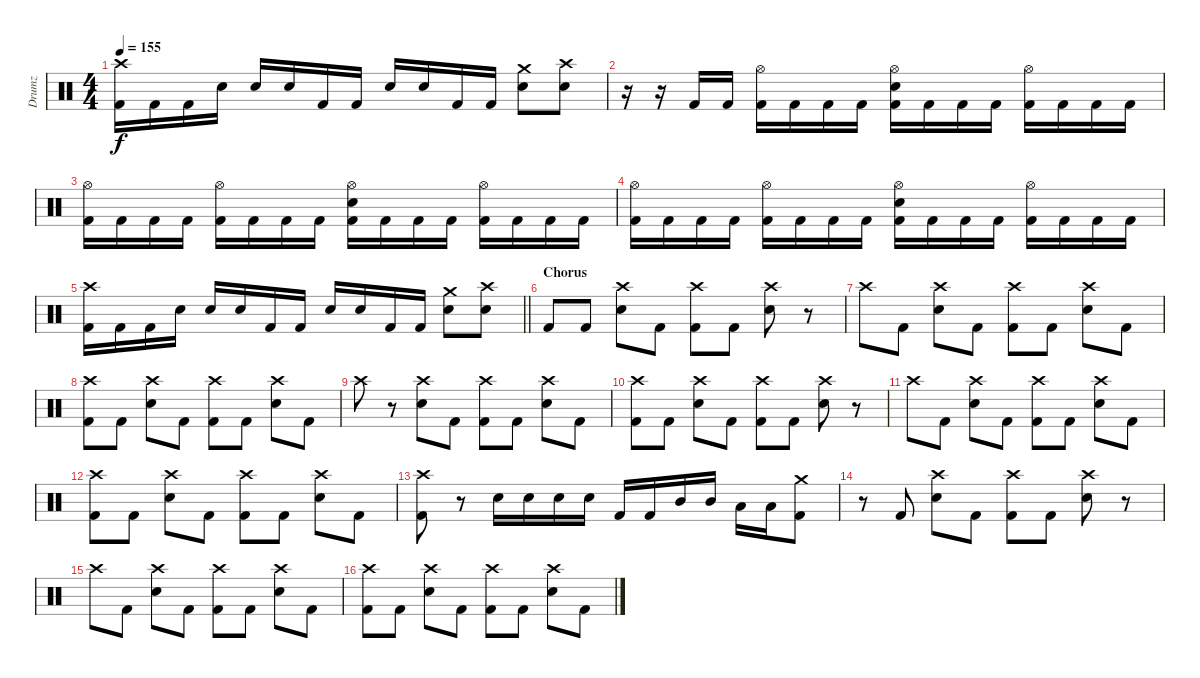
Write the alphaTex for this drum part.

\track ("Drumz" "Drumz") {instrument percussion}
\staff {score}
\articulation defaults
\ts (4 4)
\tempo 155
\clef neutral
\ks c
("Kick (hit) 2" "Crash high (hit)").16{dy f} "Kick (hit) 2".16 "Kick (hit) 2".16 "Electric Snare (hit)".16 "Electric Snare (hit)".16 "Electric Snare (hit)".16 "Kick (hit) 2".16 "Kick (hit) 2".16 "Electric Snare (hit)".16 "Electric Snare (hit)".16 "Kick (hit) 2".16 "Kick (hit) 2".16 ("Crash medium (hit)" "Electric Snare (hit)").8 ("Electric Snare (hit)" "Crash high (hit)").8 |
r.16 r.16 "Kick (hit) 2".16 "Kick (hit) 2".16 ("Kick (hit) 2" "Hi-Hat (open)").16 "Kick (hit) 2".16 "Kick (hit) 2".16 "Kick (hit) 2".16 ("Kick (hit) 2" "Hi-Hat (open)" "Electric Snare (hit)").16 "Kick (hit) 2".16 "Kick (hit) 2".16 "Kick (hit) 2".16 ("Kick (hit) 2" "Hi-Hat (open)").16 "Kick (hit) 2".16 "Kick (hit) 2".16 "Kick (hit) 2".16 |
("Kick (hit) 2" "Hi-Hat (open)").16 "Kick (hit) 2".16 "Kick (hit) 2".16 "Kick (hit) 2".16 ("Kick (hit) 2" "Hi-Hat (open)").16 "Kick (hit) 2".16 "Kick (hit) 2".16 "Kick (hit) 2".16 ("Kick (hit) 2" "Hi-Hat (open)" "Electric Snare (hit)").16 "Kick (hit) 2".16 "Kick (hit) 2".16 "Kick (hit) 2".16 ("Kick (hit) 2" "Hi-Hat (open)").16 "Kick (hit) 2".16 "Kick (hit) 2".16 "Kick (hit) 2".16 |
("Kick (hit) 2" "Hi-Hat (open)").16 "Kick (hit) 2".16 "Kick (hit) 2".16 "Kick (hit) 2".16 ("Kick (hit) 2" "Hi-Hat (open)").16 "Kick (hit) 2".16 "Kick (hit) 2".16 "Kick (hit) 2".16 ("Kick (hit) 2" "Hi-Hat (open)" "Electric Snare (hit)").16 "Kick (hit) 2".16 "Kick (hit) 2".16 "Kick (hit) 2".16 ("Kick (hit) 2" "Hi-Hat (open)").16 "Kick (hit) 2".16 "Kick (hit) 2".16 "Kick (hit) 2".16 |
\barLineRight lightlight
("Kick (hit) 2" "Crash high (hit)").16 "Kick (hit) 2".16 "Kick (hit) 2".16 "Electric Snare (hit)".16 "Electric Snare (hit)".16 "Electric Snare (hit)".16 "Kick (hit) 2".16 "Kick (hit) 2".16 "Electric Snare (hit)".16 "Electric Snare (hit)".16 "Kick (hit) 2".16 "Kick (hit) 2".16 ("Crash medium (hit)" "Electric Snare (hit)").8 ("Electric Snare (hit)" "Crash high (hit)").8 |
\section ("" "Chorus")
"Kick (hit) 2".8 "Kick (hit) 2".8 ("Electric Snare (hit)" "Crash high (hit)").8 "Kick (hit) 2".8 ("Kick (hit) 2" "Crash high (hit)").8 "Kick (hit) 2".8 ("Electric Snare (hit)" "Crash high (hit)").8 r.8 |
"Crash high (hit)".8 "Kick (hit) 2".8 ("Electric Snare (hit)" "Crash high (hit)").8 "Kick (hit) 2".8 ("Kick (hit) 2" "Crash high (hit)").8 "Kick (hit) 2".8 ("Electric Snare (hit)" "Crash high (hit)").8 "Kick (hit) 2".8 |
("Kick (hit) 2" "Crash high (hit)").8 "Kick (hit) 2".8 ("Electric Snare (hit)" "Crash high (hit)").8 "Kick (hit) 2".8 ("Kick (hit) 2" "Crash high (hit)").8 "Kick (hit) 2".8 ("Electric Snare (hit)" "Crash high (hit)").8 "Kick (hit) 2".8 |
"Crash high (hit)".8 r.8 ("Electric Snare (hit)" "Crash high (hit)").8 "Kick (hit) 2".8 ("Kick (hit) 2" "Crash high (hit)").8 "Kick (hit) 2".8 ("Electric Snare (hit)" "Crash high (hit)").8 "Kick (hit) 2".8 |
("Kick (hit) 2" "Crash high (hit)").8 "Kick (hit) 2".8 ("Electric Snare (hit)" "Crash high (hit)").8 "Kick (hit) 2".8 ("Kick (hit) 2" "Crash high (hit)").8 "Kick (hit) 2".8 ("Electric Snare (hit)" "Crash high (hit)").8 r.8 |
"Crash high (hit)".8 "Kick (hit) 2".8 ("Electric Snare (hit)" "Crash high (hit)").8 "Kick (hit) 2".8 ("Kick (hit) 2" "Crash high (hit)").8 "Kick (hit) 2".8 ("Electric Snare (hit)" "Crash high (hit)").8 "Kick (hit) 2".8 |
("Kick (hit) 2" "Crash high (hit)").8 "Kick (hit) 2".8 ("Electric Snare (hit)" "Crash high (hit)").8 "Kick (hit) 2".8 ("Kick (hit) 2" "Crash high (hit)").8 "Kick (hit) 2".8 ("Electric Snare (hit)" "Crash high (hit)").8 "Kick (hit) 2".8 |
("Crash high (hit)" "Kick (hit) 2").8 r.8 "Electric Snare (hit)".16 "Electric Snare (hit)".16 "Electric Snare (hit)".16 "Electric Snare (hit)".16 "Kick (hit) 2".16 "Kick (hit) 2".16 "Mid Tom (hit)".16 "Mid Tom (hit)".16 "Low Tom (hit)".16 "Low Tom (hit)".16 ("Kick (hit) 2" "Crash medium (hit)").8 |
r.8 "Kick (hit) 2".8 ("Electric Snare (hit)" "Crash high (hit)").8 "Kick (hit) 2".8 ("Kick (hit) 2" "Crash high (hit)").8 "Kick (hit) 2".8 ("Electric Snare (hit)" "Crash high (hit)").8 r.8 |
"Crash high (hit)".8 "Kick (hit) 2".8 ("Electric Snare (hit)" "Crash high (hit)").8 "Kick (hit) 2".8 ("Kick (hit) 2" "Crash high (hit)").8 "Kick (hit) 2".8 ("Electric Snare (hit)" "Crash high (hit)").8 "Kick (hit) 2".8 |
("Kick (hit) 2" "Crash high (hit)").8 "Kick (hit) 2".8 ("Electric Snare (hit)" "Crash high (hit)").8 "Kick (hit) 2".8 ("Kick (hit) 2" "Crash high (hit)").8 "Kick (hit) 2".8 ("Electric Snare (hit)" "Crash high (hit)").8 "Kick (hit) 2".8
